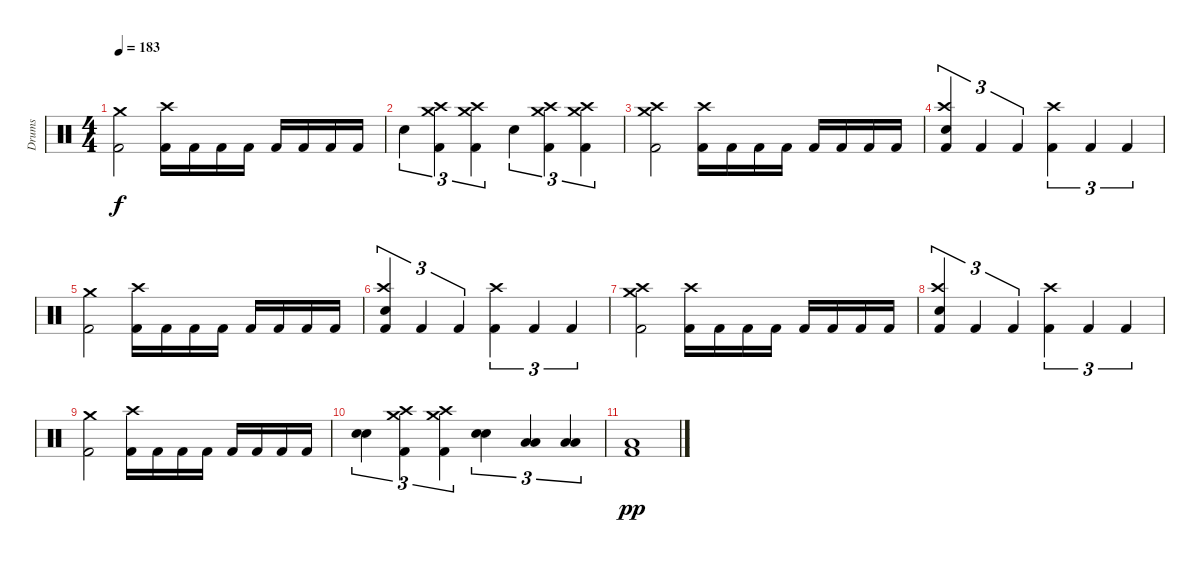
\track ("Drums" "Drums") {instrument percussion}
\staff {score}
\articulation defaults
\ts (4 4)
\tempo 183
\clef neutral
\ks c
("Crash medium (hit)" "Kick (hit) 2").2{dy f} ("Crash high (hit)" "Kick (hit) 2").16 "Kick (hit) 2".16 "Kick (hit) 2".16 "Kick (hit) 2".16 "Kick (hit) 2".16 "Kick (hit) 2".16 "Kick (hit) 2".16 "Kick (hit) 2".16 |
"Electric Snare (hit)".4{tu (3 2)} ("Crash medium (hit)" "Crash high (hit)" "Kick (hit) 2").4{tu (3 2)} ("Crash medium (hit)" "Crash high (hit)" "Kick (hit) 2").4{tu (3 2)} "Electric Snare (hit)".4{tu (3 2)} ("Crash medium (hit)" "Crash high (hit)" "Kick (hit) 2").4{tu (3 2)} ("Crash medium (hit)" "Crash high (hit)" "Kick (hit) 2").4{tu (3 2)} |
("Crash medium (hit)" "Crash high (hit)" "Kick (hit) 2").2 ("Crash high (hit)" "Kick (hit) 2").16 "Kick (hit) 2".16 "Kick (hit) 2".16 "Kick (hit) 2".16 "Kick (hit) 2".16 "Kick (hit) 2".16 "Kick (hit) 2".16 "Kick (hit) 2".16 |
("Crash high (hit)" "Electric Snare (hit)" "Kick (hit) 2").4{tu (3 2)} "Kick (hit) 2".4{tu (3 2)} "Kick (hit) 2".4{tu (3 2)} ("Crash high (hit)" "Kick (hit) 2").4{tu (3 2)} "Kick (hit) 2".4{tu (3 2)} "Kick (hit) 2".4{tu (3 2)} |
("Crash medium (hit)" "Kick (hit) 2").2 ("Crash high (hit)" "Kick (hit) 2").16 "Kick (hit) 2".16 "Kick (hit) 2".16 "Kick (hit) 2".16 "Kick (hit) 2".16 "Kick (hit) 2".16 "Kick (hit) 2".16 "Kick (hit) 2".16 |
("Crash high (hit)" "Electric Snare (hit)" "Kick (hit) 2").4{tu (3 2)} "Kick (hit) 2".4{tu (3 2)} "Kick (hit) 2".4{tu (3 2)} ("Crash high (hit)" "Kick (hit) 2").4{tu (3 2)} "Kick (hit) 2".4{tu (3 2)} "Kick (hit) 2".4{tu (3 2)} |
("Crash medium (hit)" "Crash high (hit)" "Kick (hit) 2").2 ("Crash high (hit)" "Kick (hit) 2").16 "Kick (hit) 2".16 "Kick (hit) 2".16 "Kick (hit) 2".16 "Kick (hit) 2".16 "Kick (hit) 2".16 "Kick (hit) 2".16 "Kick (hit) 2".16 |
("Crash high (hit)" "Electric Snare (hit)" "Kick (hit) 2").4{tu (3 2)} "Kick (hit) 2".4{tu (3 2)} "Kick (hit) 2".4{tu (3 2)} ("Crash high (hit)" "Kick (hit) 2").4{tu (3 2)} "Kick (hit) 2".4{tu (3 2)} "Kick (hit) 2".4{tu (3 2)} |
("Crash medium (hit)" "Kick (hit) 2").2 ("Crash high (hit)" "Kick (hit) 2").16 "Kick (hit) 2".16 "Kick (hit) 2".16 "Kick (hit) 2".16 "Kick (hit) 2".16 "Kick (hit) 2".16 "Kick (hit) 2".16 "Kick (hit) 2".16 |
("Electric Snare (hit)" "Electric Snare (hit)").4{tu (3 2)} ("Crash medium (hit)" "Crash high (hit)" "Kick (hit) 2").4{tu (3 2)} ("Crash medium (hit)" "Crash high (hit)" "Kick (hit) 2").4{tu (3 2)} ("Electric Snare (hit)" "Electric Snare (hit)").4{tu (3 2)} ("Low Tom (hit)" "Low Floor Tom (hit)").4{tu (3 2)} ("Low Tom (hit)" "Low Floor Tom (hit)").4{tu (3 2)} |
("Low Floor Tom (hit)" "Kick (hit) 2").1{dy pp}
